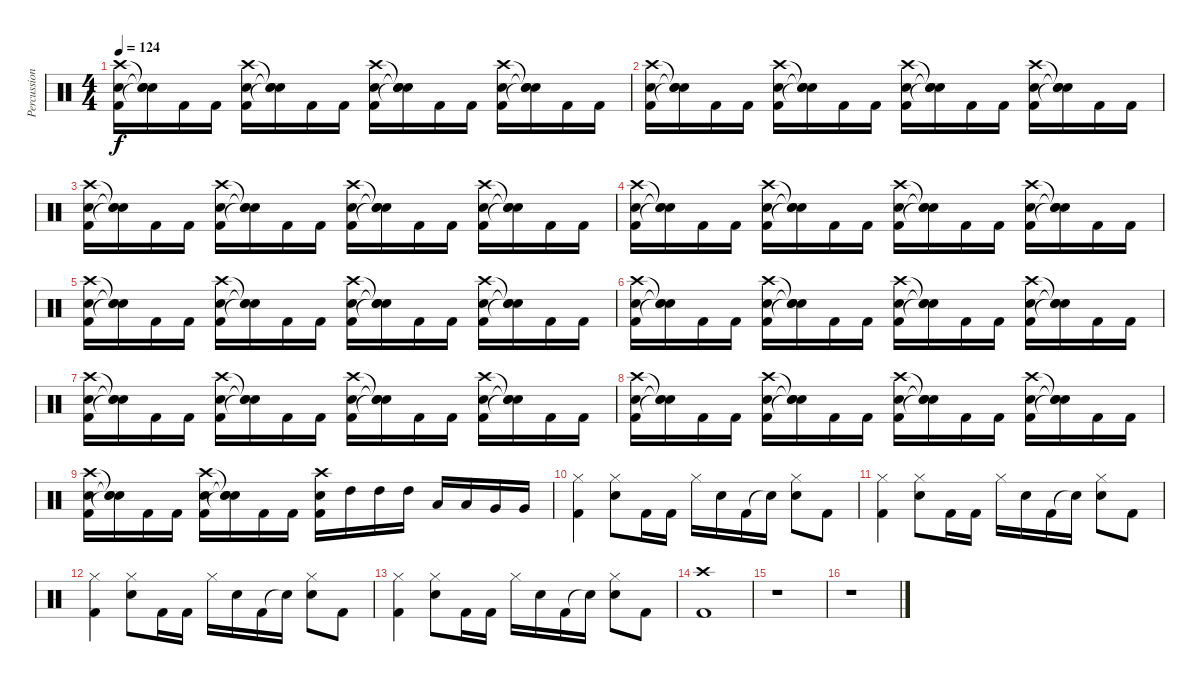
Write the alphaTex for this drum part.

\track ("Percussions" "Percussion") {instrument percussion}
\staff {score}
\articulation defaults
\ts (4 4)
\tempo 124
\clef neutral
\ks c
("Kick (hit) 2" "Electric Snare (hit)" "Crash high (hit)").16{dy f} ("Snare (hit)"{t} "Snare (hit)"{t} "Snare (hit)"{t}).16 "Kick (hit) 2".16 "Kick (hit) 2".16 ("Kick (hit) 2" "Electric Snare (hit)" "Crash high (hit)").16 ("Snare (hit)"{t} "Snare (hit)"{t} "Snare (hit)"{t}).16 "Kick (hit) 2".16 "Kick (hit) 2".16 ("Kick (hit) 2" "Electric Snare (hit)" "Crash high (hit)").16 ("Snare (hit)"{t} "Snare (hit)"{t} "Snare (hit)"{t}).16 "Kick (hit) 2".16 "Kick (hit) 2".16 ("Kick (hit) 2" "Electric Snare (hit)" "Crash high (hit)").16 ("Snare (hit)"{t} "Snare (hit)"{t} "Snare (hit)"{t}).16 "Kick (hit) 2".16 "Kick (hit) 2".16 |
("Kick (hit) 2" "Electric Snare (hit)" "Crash high (hit)").16 ("Snare (hit)"{t} "Snare (hit)"{t} "Snare (hit)"{t}).16 "Kick (hit) 2".16 "Kick (hit) 2".16 ("Kick (hit) 2" "Electric Snare (hit)" "Crash high (hit)").16 ("Snare (hit)"{t} "Snare (hit)"{t} "Snare (hit)"{t}).16 "Kick (hit) 2".16 "Kick (hit) 2".16 ("Kick (hit) 2" "Electric Snare (hit)" "Crash high (hit)").16 ("Snare (hit)"{t} "Snare (hit)"{t} "Snare (hit)"{t}).16 "Kick (hit) 2".16 "Kick (hit) 2".16 ("Kick (hit) 2" "Electric Snare (hit)" "Crash high (hit)").16 ("Snare (hit)"{t} "Snare (hit)"{t} "Snare (hit)"{t}).16 "Kick (hit) 2".16 "Kick (hit) 2".16 |
("Kick (hit) 2" "Electric Snare (hit)" "Crash high (hit)").16 ("Snare (hit)"{t} "Snare (hit)"{t} "Snare (hit)"{t}).16 "Kick (hit) 2".16 "Kick (hit) 2".16 ("Kick (hit) 2" "Electric Snare (hit)" "Crash high (hit)").16 ("Snare (hit)"{t} "Snare (hit)"{t} "Snare (hit)"{t}).16 "Kick (hit) 2".16 "Kick (hit) 2".16 ("Kick (hit) 2" "Electric Snare (hit)" "Crash high (hit)").16 ("Snare (hit)"{t} "Snare (hit)"{t} "Snare (hit)"{t}).16 "Kick (hit) 2".16 "Kick (hit) 2".16 ("Kick (hit) 2" "Electric Snare (hit)" "Crash high (hit)").16 ("Snare (hit)"{t} "Snare (hit)"{t} "Snare (hit)"{t}).16 "Kick (hit) 2".16 "Kick (hit) 2".16 |
("Kick (hit) 2" "Electric Snare (hit)" "Crash high (hit)").16 ("Snare (hit)"{t} "Snare (hit)"{t} "Snare (hit)"{t}).16 "Kick (hit) 2".16 "Kick (hit) 2".16 ("Kick (hit) 2" "Electric Snare (hit)" "Crash high (hit)").16 ("Snare (hit)"{t} "Snare (hit)"{t} "Snare (hit)"{t}).16 "Kick (hit) 2".16 "Kick (hit) 2".16 ("Kick (hit) 2" "Electric Snare (hit)" "Crash high (hit)").16 ("Snare (hit)"{t} "Snare (hit)"{t} "Snare (hit)"{t}).16 "Kick (hit) 2".16 "Kick (hit) 2".16 ("Kick (hit) 2" "Electric Snare (hit)" "Crash high (hit)").16 ("Snare (hit)"{t} "Snare (hit)"{t} "Snare (hit)"{t}).16 "Kick (hit) 2".16 "Kick (hit) 2".16 |
("Kick (hit) 2" "Electric Snare (hit)" "Crash high (hit)").16 ("Snare (hit)"{t} "Snare (hit)"{t} "Snare (hit)"{t}).16 "Kick (hit) 2".16 "Kick (hit) 2".16 ("Kick (hit) 2" "Electric Snare (hit)" "Crash high (hit)").16 ("Snare (hit)"{t} "Snare (hit)"{t} "Snare (hit)"{t}).16 "Kick (hit) 2".16 "Kick (hit) 2".16 ("Kick (hit) 2" "Electric Snare (hit)" "Crash high (hit)").16 ("Snare (hit)"{t} "Snare (hit)"{t} "Snare (hit)"{t}).16 "Kick (hit) 2".16 "Kick (hit) 2".16 ("Kick (hit) 2" "Electric Snare (hit)" "Crash high (hit)").16 ("Snare (hit)"{t} "Snare (hit)"{t} "Snare (hit)"{t}).16 "Kick (hit) 2".16 "Kick (hit) 2".16 |
("Kick (hit) 2" "Electric Snare (hit)" "Crash high (hit)").16 ("Snare (hit)"{t} "Snare (hit)"{t} "Snare (hit)"{t}).16 "Kick (hit) 2".16 "Kick (hit) 2".16 ("Kick (hit) 2" "Electric Snare (hit)" "Crash high (hit)").16 ("Snare (hit)"{t} "Snare (hit)"{t} "Snare (hit)"{t}).16 "Kick (hit) 2".16 "Kick (hit) 2".16 ("Kick (hit) 2" "Electric Snare (hit)" "Crash high (hit)").16 ("Snare (hit)"{t} "Snare (hit)"{t} "Snare (hit)"{t}).16 "Kick (hit) 2".16 "Kick (hit) 2".16 ("Kick (hit) 2" "Electric Snare (hit)" "Crash high (hit)").16 ("Snare (hit)"{t} "Snare (hit)"{t} "Snare (hit)"{t}).16 "Kick (hit) 2".16 "Kick (hit) 2".16 |
("Kick (hit) 2" "Electric Snare (hit)" "Crash high (hit)").16 ("Snare (hit)"{t} "Snare (hit)"{t} "Snare (hit)"{t}).16 "Kick (hit) 2".16 "Kick (hit) 2".16 ("Kick (hit) 2" "Electric Snare (hit)" "Crash high (hit)").16 ("Snare (hit)"{t} "Snare (hit)"{t} "Snare (hit)"{t}).16 "Kick (hit) 2".16 "Kick (hit) 2".16 ("Kick (hit) 2" "Electric Snare (hit)" "Crash high (hit)").16 ("Snare (hit)"{t} "Snare (hit)"{t} "Snare (hit)"{t}).16 "Kick (hit) 2".16 "Kick (hit) 2".16 ("Kick (hit) 2" "Electric Snare (hit)" "Crash high (hit)").16 ("Snare (hit)"{t} "Snare (hit)"{t} "Snare (hit)"{t}).16 "Kick (hit) 2".16 "Kick (hit) 2".16 |
("Kick (hit) 2" "Electric Snare (hit)" "Crash high (hit)").16 ("Snare (hit)"{t} "Snare (hit)"{t} "Snare (hit)"{t}).16 "Kick (hit) 2".16 "Kick (hit) 2".16 ("Kick (hit) 2" "Electric Snare (hit)" "Crash high (hit)").16 ("Snare (hit)"{t} "Snare (hit)"{t} "Snare (hit)"{t}).16 "Kick (hit) 2".16 "Kick (hit) 2".16 ("Kick (hit) 2" "Electric Snare (hit)" "Crash high (hit)").16 ("Snare (hit)"{t} "Snare (hit)"{t} "Snare (hit)"{t}).16 "Kick (hit) 2".16 "Kick (hit) 2".16 ("Kick (hit) 2" "Electric Snare (hit)" "Crash high (hit)").16 ("Snare (hit)"{t} "Snare (hit)"{t} "Snare (hit)"{t}).16 "Kick (hit) 2".16 "Kick (hit) 2".16 |
("Kick (hit) 2" "Electric Snare (hit)" "Crash high (hit)").16 ("Snare (hit)"{t} "Snare (hit)"{t} "Snare (hit)"{t}).16 "Kick (hit) 2".16 "Kick (hit) 2".16 ("Kick (hit) 2" "Electric Snare (hit)" "Crash high (hit)").16 ("Snare (hit)"{t} "Snare (hit)"{t} "Snare (hit)"{t}).16 "Kick (hit) 2".16 "Kick (hit) 2".16 ("Kick (hit) 2" "Electric Snare (hit)" "Crash high (hit)").16 "High Tom (hit)".16 "High Tom (hit)".16 "High Tom (hit)".16 "Low Tom (hit)".16 "Low Tom (hit)".16 "Very Low Tom (hit)".16 "Very Low Tom (hit)".16 |
("Kick (hit) 2" "Hi-Hat (closed)").4 ("Electric Snare (hit)" "Hi-Hat (closed)").8 "Kick (hit) 2".16 "Kick (hit) 2".16 "Hi-Hat (closed)".16 "Electric Snare (hit)".16 "Kick (hit) 2".16 "Snare (hit)"{t}.16 ("Electric Snare (hit)" "Hi-Hat (closed)").8 "Kick (hit) 2".8 |
("Kick (hit) 2" "Hi-Hat (closed)").4 ("Electric Snare (hit)" "Hi-Hat (closed)").8 "Kick (hit) 2".16 "Kick (hit) 2".16 "Hi-Hat (closed)".16 "Electric Snare (hit)".16 "Kick (hit) 2".16 "Snare (hit)"{t}.16 ("Electric Snare (hit)" "Hi-Hat (closed)").8 "Kick (hit) 2".8 |
("Kick (hit) 2" "Hi-Hat (closed)").4 ("Electric Snare (hit)" "Hi-Hat (closed)").8 "Kick (hit) 2".16 "Kick (hit) 2".16 "Hi-Hat (closed)".16 "Electric Snare (hit)".16 "Kick (hit) 2".16 "Snare (hit)"{t}.16 ("Electric Snare (hit)" "Hi-Hat (closed)").8 "Kick (hit) 2".8 |
("Kick (hit) 2" "Hi-Hat (closed)").4 ("Electric Snare (hit)" "Hi-Hat (closed)").8 "Kick (hit) 2".16 "Kick (hit) 2".16 "Hi-Hat (closed)".16 "Electric Snare (hit)".16 "Kick (hit) 2".16 "Snare (hit)"{t}.16 ("Electric Snare (hit)" "Hi-Hat (closed)").8 "Kick (hit) 2".8 |
("Kick (hit) 2" "Crash high (hit)").1 |
r.1 |
r.1
